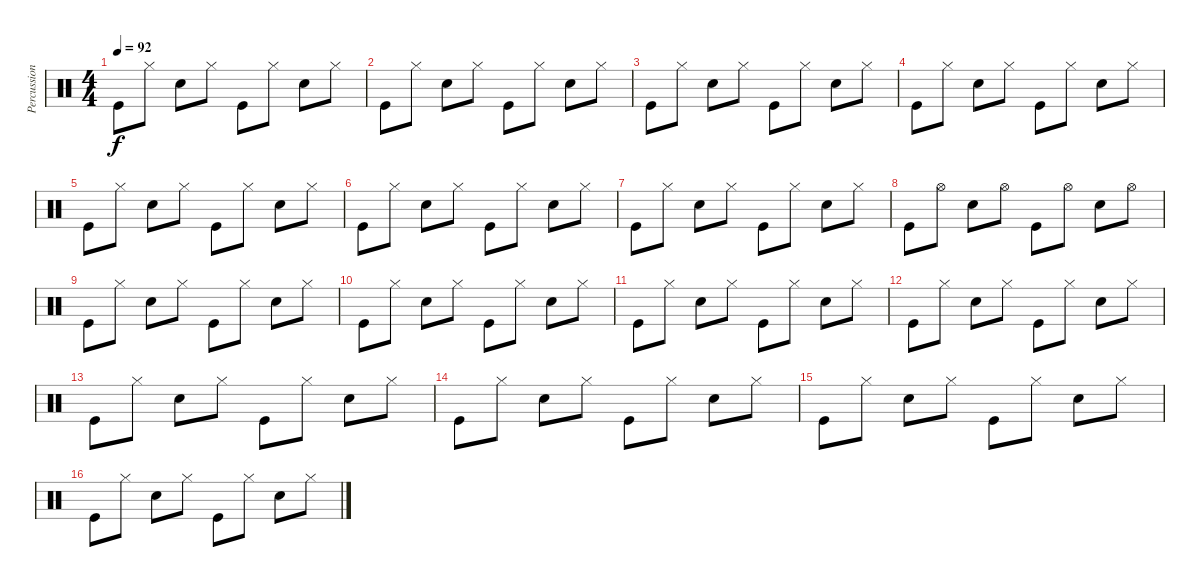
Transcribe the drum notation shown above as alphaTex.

\track ("Percussions" "Percussion") {instrument percussion}
\staff {score}
\articulation defaults
\ts (4 4)
\tempo 92
\clef neutral
\ks c "Kick (hit)".8{dy f} "Hi-Hat (closed)".8 "Electric Snare (hit)".8 "Hi-Hat (closed)".8 "Kick (hit)".8 "Hi-Hat (closed)".8 "Electric Snare (hit)".8 "Hi-Hat (closed)".8
|
"Kick (hit)".8 "Hi-Hat (closed)".8 "Electric Snare (hit)".8 "Hi-Hat (closed)".8 "Kick (hit)".8 "Hi-Hat (closed)".8 "Electric Snare (hit)".8 "Hi-Hat (closed)".8 |
"Kick (hit)".8 "Hi-Hat (closed)".8 "Electric Snare (hit)".8 "Hi-Hat (closed)".8 "Kick (hit)".8 "Hi-Hat (closed)".8 "Electric Snare (hit)".8 "Hi-Hat (closed)".8 |
"Kick (hit)".8 "Hi-Hat (closed)".8 "Electric Snare (hit)".8 "Hi-Hat (closed)".8 "Kick (hit)".8 "Hi-Hat (closed)".8 "Electric Snare (hit)".8 "Hi-Hat (closed)".8 |
"Kick (hit)".8 "Hi-Hat (closed)".8 "Electric Snare (hit)".8 "Hi-Hat (closed)".8 "Kick (hit)".8 "Hi-Hat (closed)".8 "Electric Snare (hit)".8 "Hi-Hat (closed)".8 |
"Kick (hit)".8 "Hi-Hat (closed)".8 "Electric Snare (hit)".8 "Hi-Hat (closed)".8 "Kick (hit)".8 "Hi-Hat (closed)".8 "Electric Snare (hit)".8 "Hi-Hat (closed)".8 |
"Kick (hit)".8 "Hi-Hat (closed)".8 "Electric Snare (hit)".8 "Hi-Hat (closed)".8 "Kick (hit)".8 "Hi-Hat (closed)".8 "Electric Snare (hit)".8 "Hi-Hat (closed)".8 |
"Kick (hit)".8 "Hi-Hat (open)".8 "Electric Snare (hit)".8 "Hi-Hat (open)".8 "Kick (hit)".8 "Hi-Hat (open)".8 "Electric Snare (hit)".8 "Hi-Hat (open)".8 |
"Kick (hit)".8 "Hi-Hat (closed)".8 "Electric Snare (hit)".8 "Hi-Hat (closed)".8 "Kick (hit)".8 "Hi-Hat (closed)".8 "Electric Snare (hit)".8 "Hi-Hat (closed)".8 |
"Kick (hit)".8 "Hi-Hat (closed)".8 "Electric Snare (hit)".8 "Hi-Hat (closed)".8 "Kick (hit)".8 "Hi-Hat (closed)".8 "Electric Snare (hit)".8 "Hi-Hat (closed)".8 |
"Kick (hit)".8 "Hi-Hat (closed)".8 "Electric Snare (hit)".8 "Hi-Hat (closed)".8 "Kick (hit)".8 "Hi-Hat (closed)".8 "Electric Snare (hit)".8 "Hi-Hat (closed)".8 |
"Kick (hit)".8 "Hi-Hat (closed)".8 "Electric Snare (hit)".8 "Hi-Hat (closed)".8 "Kick (hit)".8 "Hi-Hat (closed)".8 "Electric Snare (hit)".8 "Hi-Hat (closed)".8 |
"Kick (hit)".8 "Hi-Hat (closed)".8 "Electric Snare (hit)".8 "Hi-Hat (closed)".8 "Kick (hit)".8 "Hi-Hat (closed)".8 "Electric Snare (hit)".8 "Hi-Hat (closed)".8 |
"Kick (hit)".8 "Hi-Hat (closed)".8 "Electric Snare (hit)".8 "Hi-Hat (closed)".8 "Kick (hit)".8 "Hi-Hat (closed)".8 "Electric Snare (hit)".8 "Hi-Hat (closed)".8 |
"Kick (hit)".8 "Hi-Hat (closed)".8 "Electric Snare (hit)".8 "Hi-Hat (closed)".8 "Kick (hit)".8 "Hi-Hat (closed)".8 "Electric Snare (hit)".8 "Hi-Hat (closed)".8 |
"Kick (hit)".8 "Hi-Hat (closed)".8 "Electric Snare (hit)".8 "Hi-Hat (closed)".8 "Kick (hit)".8 "Hi-Hat (closed)".8 "Electric Snare (hit)".8 "Hi-Hat (closed)".8
